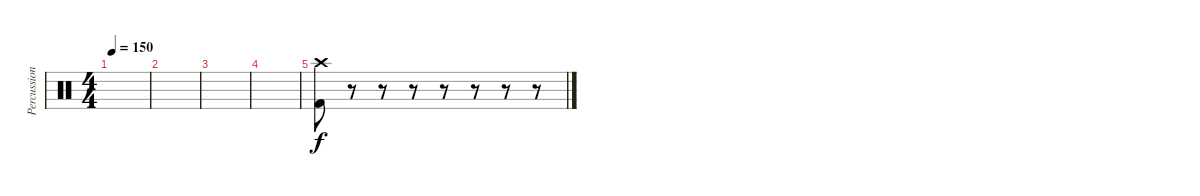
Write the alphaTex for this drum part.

\track ("Percussion" "Percussion") {instrument percussion}
\staff {score}
\articulation defaults
\ts (4 4)
\tempo 150
\clef neutral
\ks c
|
|
|
|
("Crash high (hit)" "Kick (hit) 2").8 r.8 r.8 r.8 r.8 r.8 r.8 r.8
